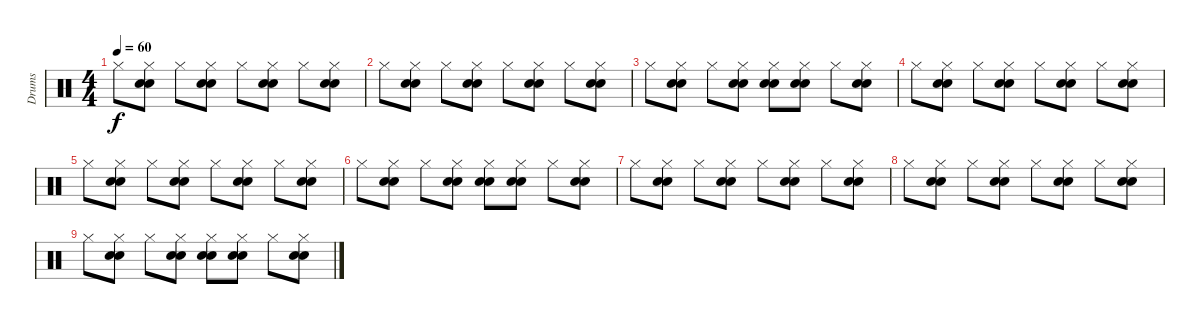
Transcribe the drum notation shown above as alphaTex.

\track ("Drums" "Drums") {instrument percussion}
\staff {score}
\articulation defaults
\ts (4 4)
\tempo 60
\clef neutral
\ks c "Hi-Hat (closed)".8{dy f}
("Hi-Hat (closed)" "Electric Snare (hit)" "Snare (hit) 2").8 "Hi-Hat (closed)".8 ("Hi-Hat (closed)" "Electric Snare (hit)" "Snare (hit) 2").8 "Hi-Hat (closed)".8 ("Hi-Hat (closed)" "Electric Snare (hit)" "Snare (hit) 2").8 "Hi-Hat (closed)".8 ("Hi-Hat (closed)" "Electric Snare (hit)" "Snare (hit) 2").8 |
"Hi-Hat (closed)".8 ("Hi-Hat (closed)" "Electric Snare (hit)" "Snare (hit) 2").8 "Hi-Hat (closed)".8 ("Hi-Hat (closed)" "Electric Snare (hit)" "Snare (hit) 2").8 "Hi-Hat (closed)".8 ("Hi-Hat (closed)" "Electric Snare (hit)" "Snare (hit) 2").8 "Hi-Hat (closed)".8 ("Hi-Hat (closed)" "Electric Snare (hit)" "Snare (hit) 2").8 |
"Hi-Hat (closed)".8 ("Hi-Hat (closed)" "Electric Snare (hit)" "Snare (hit) 2").8 "Hi-Hat (closed)".8 ("Hi-Hat (closed)" "Electric Snare (hit)" "Snare (hit) 2").8 ("Hi-Hat (closed)" "Electric Snare (hit)" "Snare (hit) 2").8 ("Hi-Hat (closed)" "Electric Snare (hit)" "Snare (hit) 2").8 "Hi-Hat (closed)".8 ("Hi-Hat (closed)" "Electric Snare (hit)" "Snare (hit) 2").8 |
"Hi-Hat (closed)".8 ("Hi-Hat (closed)" "Electric Snare (hit)" "Snare (hit) 2").8 "Hi-Hat (closed)".8 ("Hi-Hat (closed)" "Electric Snare (hit)" "Snare (hit) 2").8 "Hi-Hat (closed)".8 ("Hi-Hat (closed)" "Electric Snare (hit)" "Snare (hit) 2").8 "Hi-Hat (closed)".8 ("Hi-Hat (closed)" "Electric Snare (hit)" "Snare (hit) 2").8 |
"Hi-Hat (closed)".8 ("Hi-Hat (closed)" "Electric Snare (hit)" "Snare (hit) 2").8 "Hi-Hat (closed)".8 ("Hi-Hat (closed)" "Electric Snare (hit)" "Snare (hit) 2").8 "Hi-Hat (closed)".8 ("Hi-Hat (closed)" "Electric Snare (hit)" "Snare (hit) 2").8 "Hi-Hat (closed)".8 ("Hi-Hat (closed)" "Electric Snare (hit)" "Snare (hit) 2").8 |
"Hi-Hat (closed)".8 ("Hi-Hat (closed)" "Electric Snare (hit)" "Snare (hit) 2").8 "Hi-Hat (closed)".8 ("Hi-Hat (closed)" "Electric Snare (hit)" "Snare (hit) 2").8 ("Hi-Hat (closed)" "Electric Snare (hit)" "Snare (hit) 2").8 ("Hi-Hat (closed)" "Electric Snare (hit)" "Snare (hit) 2").8 "Hi-Hat (closed)".8 ("Hi-Hat (closed)" "Electric Snare (hit)" "Snare (hit) 2").8 |
"Hi-Hat (closed)".8 ("Hi-Hat (closed)" "Electric Snare (hit)" "Snare (hit) 2").8 "Hi-Hat (closed)".8 ("Hi-Hat (closed)" "Electric Snare (hit)" "Snare (hit) 2").8 "Hi-Hat (closed)".8 ("Hi-Hat (closed)" "Electric Snare (hit)" "Snare (hit) 2").8 "Hi-Hat (closed)".8 ("Hi-Hat (closed)" "Electric Snare (hit)" "Snare (hit) 2").8 |
"Hi-Hat (closed)".8 ("Hi-Hat (closed)" "Electric Snare (hit)" "Snare (hit) 2").8 "Hi-Hat (closed)".8 ("Hi-Hat (closed)" "Electric Snare (hit)" "Snare (hit) 2").8 "Hi-Hat (closed)".8 ("Hi-Hat (closed)" "Electric Snare (hit)" "Snare (hit) 2").8 "Hi-Hat (closed)".8 ("Hi-Hat (closed)" "Electric Snare (hit)" "Snare (hit) 2").8 |
"Hi-Hat (closed)".8 ("Hi-Hat (closed)" "Electric Snare (hit)" "Snare (hit) 2").8 "Hi-Hat (closed)".8 ("Hi-Hat (closed)" "Electric Snare (hit)" "Snare (hit) 2").8 ("Hi-Hat (closed)" "Electric Snare (hit)" "Snare (hit) 2").8 ("Hi-Hat (closed)" "Electric Snare (hit)" "Snare (hit) 2").8 "Hi-Hat (closed)".8 ("Hi-Hat (closed)" "Electric Snare (hit)" "Snare (hit) 2").8
